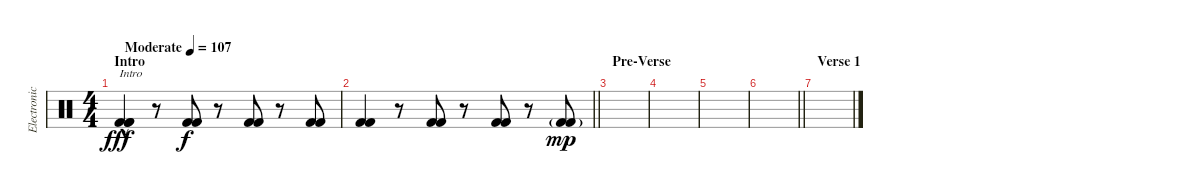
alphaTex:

\track ("Electronic Drums" "Electronic") {instrument percussion}
\staff {score}
\articulation defaults
\ts (4 4)
\section ("" "Intro")
\tempo (107 "Moderate")
\clef neutral
\ks c
("Kick (hit) 2"{hac} "Kick (hit) 2"{hac} "Kick (hit) 2"{hac}).4{txt "Intro" dy fff} r.8 ("Kick (hit) 2" "Kick (hit) 2").8{dy f} r.8 ("Kick (hit) 2" "Kick (hit) 2").8 r.8 ("Kick (hit) 2" "Kick (hit) 2").8 |
\barLineRight lightlight
("Kick (hit) 2" "Kick (hit) 2").4 r.8 ("Kick (hit) 2" "Kick (hit) 2").8 r.8 ("Kick (hit) 2" "Kick (hit) 2").8 r.8 ("Kick (hit) 2"{g} "Kick (hit) 2"{g}).8{dy mp} |
\section ("" "Pre-Verse")
|
|
|
\barLineRight lightlight
|
\section ("" "Verse 1")
